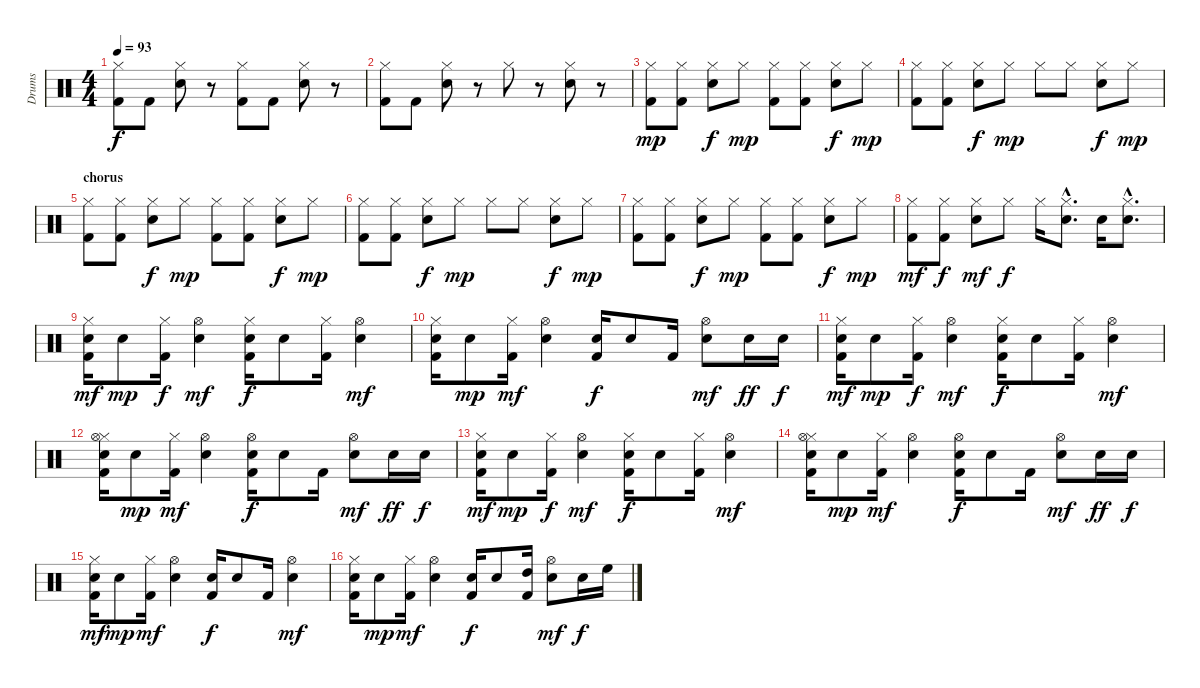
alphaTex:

\track ("Drums" "Drums") {instrument percussion}
\staff {score}
\articulation defaults
\ts (4 4)
\tempo 93
\clef neutral
\ks c
("Kick (hit) 2" "Hi-Hat (closed)").8{dy f} "Kick (hit) 2".8 ("Snare (hit) 2" "Hi-Hat (closed)").8 r.8 ("Kick (hit) 2" "Hi-Hat (closed)").8 "Kick (hit) 2".8 ("Snare (hit) 2" "Hi-Hat (closed)").8 r.8 |
("Kick (hit) 2" "Hi-Hat (closed)").8 "Kick (hit) 2".8 ("Snare (hit) 2" "Hi-Hat (closed)").8 r.8 "Hi-Hat (closed)".8 r.8 ("Snare (hit) 2" "Hi-Hat (closed)").8 r.8 |
("Kick (hit) 2" "Hi-Hat (closed)").8{dy mp} ("Kick (hit) 2" "Hi-Hat (closed)").8 ("Snare (hit) 2" "Hi-Hat (closed)").8{dy f} "Hi-Hat (closed)".8{dy mp} ("Kick (hit) 2" "Hi-Hat (closed)").8 ("Kick (hit) 2" "Hi-Hat (closed)").8 ("Snare (hit) 2" "Hi-Hat (closed)").8{dy f} "Hi-Hat (closed)".8{dy mp} |
("Kick (hit) 2" "Hi-Hat (closed)").8 ("Kick (hit) 2" "Hi-Hat (closed)").8 ("Snare (hit) 2" "Hi-Hat (closed)").8{dy f} "Hi-Hat (closed)".8{dy mp} "Hi-Hat (closed)".8 "Hi-Hat (closed)".8 ("Snare (hit) 2" "Hi-Hat (closed)").8{dy f} "Hi-Hat (closed)".8{dy mp} |
\section ("" "chorus")
("Kick (hit) 2" "Hi-Hat (closed)").8 ("Kick (hit) 2" "Hi-Hat (closed)").8 ("Snare (hit) 2" "Hi-Hat (closed)").8{dy f} "Hi-Hat (closed)".8{dy mp} ("Kick (hit) 2" "Hi-Hat (closed)").8 ("Kick (hit) 2" "Hi-Hat (closed)").8 ("Snare (hit) 2" "Hi-Hat (closed)").8{dy f} "Hi-Hat (closed)".8{dy mp} |
("Kick (hit) 2" "Hi-Hat (closed)").8 ("Kick (hit) 2" "Hi-Hat (closed)").8 ("Snare (hit) 2" "Hi-Hat (closed)").8{dy f} "Hi-Hat (closed)".8{dy mp} "Hi-Hat (closed)".8 "Hi-Hat (closed)".8 ("Snare (hit) 2" "Hi-Hat (closed)").8{dy f} "Hi-Hat (closed)".8{dy mp} |
("Kick (hit) 2" "Hi-Hat (closed)").8 ("Kick (hit) 2" "Hi-Hat (closed)").8 ("Snare (hit) 2" "Hi-Hat (closed)").8{dy f} "Hi-Hat (closed)".8{dy mp} ("Kick (hit) 2" "Hi-Hat (closed)").8 ("Kick (hit) 2" "Hi-Hat (closed)").8 ("Snare (hit) 2" "Hi-Hat (closed)").8{dy f} "Hi-Hat (closed)".8{dy mp} |
("Kick (hit) 2" "Hi-Hat (closed)").8{dy mf} ("Kick (hit) 2" "Hi-Hat (closed)").8{dy f} ("Snare (hit) 2" "Hi-Hat (closed)").8{dy mf} "Hi-Hat (closed)".8{dy f} "Hi-Hat (closed)".16 ("Snare (hit) 2"{hac} "Hi-Hat (closed)"{hac}).8{d} "Snare (hit) 2".16 ("Snare (hit) 2"{hac} "Hi-Hat (closed)"{hac}).8{d} |
("Kick (hit) 2" "Snare (hit) 2" "Hi-Hat (closed)").16{dy mf} "Snare (hit) 2".8{dy mp} ("Kick (hit) 2" "Hi-Hat (closed)").16{dy f} ("Snare (hit) 2" "Hi-Hat (open)").4{dy mf} ("Kick (hit) 2" "Snare (hit) 2" "Hi-Hat (closed)").16{dy f} "Snare (hit) 2".8 ("Kick (hit) 2" "Hi-Hat (closed)").16 ("Snare (hit) 2" "Hi-Hat (open)").4{dy mf} |
("Kick (hit) 2" "Snare (hit) 2" "Hi-Hat (closed)").16 "Snare (hit) 2".8{dy mp} ("Kick (hit) 2" "Hi-Hat (closed)").16{dy mf} ("Snare (hit) 2" "Hi-Hat (open)").4 ("Kick (hit) 2" "Snare (hit) 2").16{dy f} "Snare (hit) 2".8 "Kick (hit) 2".16 ("Snare (hit) 2" "Hi-Hat (open)").8{dy mf} "Snare (hit) 2".16{dy ff} "Snare (hit) 2".16{dy f} |
("Kick (hit) 2" "Snare (hit) 2" "Hi-Hat (closed)").16{dy mf} "Snare (hit) 2".8{dy mp} ("Kick (hit) 2" "Hi-Hat (closed)").16{dy f} ("Snare (hit) 2" "Hi-Hat (open)").4{dy mf} ("Kick (hit) 2" "Snare (hit) 2" "Hi-Hat (closed)").16{dy f} "Snare (hit) 2".8 ("Kick (hit) 2" "Hi-Hat (closed)").16 ("Snare (hit) 2" "Hi-Hat (open)").4{dy mf} |
("Kick (hit) 2" "Snare (hit) 2" "Hi-Hat (closed)" "Hi-Hat (open)").16 "Snare (hit) 2".8{dy mp} ("Kick (hit) 2" "Hi-Hat (closed)").16{dy mf} ("Snare (hit) 2" "Hi-Hat (open)").4 ("Kick (hit) 2" "Snare (hit) 2" "Hi-Hat (open)").16{dy f} "Snare (hit) 2".8 "Kick (hit) 2".16 ("Snare (hit) 2" "Hi-Hat (open)").8{dy mf} "Snare (hit) 2".16{dy ff} "Snare (hit) 2".16{dy f} |
("Kick (hit) 2" "Snare (hit) 2" "Hi-Hat (closed)").16{dy mf} "Snare (hit) 2".8{dy mp} ("Kick (hit) 2" "Hi-Hat (closed)").16{dy f} ("Snare (hit) 2" "Hi-Hat (open)").4{dy mf} ("Kick (hit) 2" "Snare (hit) 2" "Hi-Hat (closed)").16{dy f} "Snare (hit) 2".8 ("Kick (hit) 2" "Hi-Hat (closed)").16 ("Snare (hit) 2" "Hi-Hat (open)").4{dy mf} |
("Kick (hit) 2" "Snare (hit) 2" "Hi-Hat (closed)" "Hi-Hat (open)").16 "Snare (hit) 2".8{dy mp} ("Kick (hit) 2" "Hi-Hat (closed)").16{dy mf} ("Snare (hit) 2" "Hi-Hat (open)").4 ("Kick (hit) 2" "Snare (hit) 2" "Hi-Hat (open)").16{dy f} "Snare (hit) 2".8 "Kick (hit) 2".16 ("Snare (hit) 2" "Hi-Hat (open)").8{dy mf} "Snare (hit) 2".16{dy ff} "Snare (hit) 2".16{dy f} |
("Kick (hit) 2" "Snare (hit) 2" "Hi-Hat (closed)").16{dy mf} "Snare (hit) 2".8{dy mp} ("Kick (hit) 2" "Hi-Hat (closed)").16{dy mf} ("Snare (hit) 2" "Hi-Hat (open)").4 ("Kick (hit) 2" "Snare (hit) 2").16{dy f} "Snare (hit) 2".8 "Kick (hit) 2".16 ("Snare (hit) 2" "Hi-Hat (open)").4{dy mf} |
("Kick (hit) 2" "Snare (hit) 2" "Hi-Hat (closed)").16 "Snare (hit) 2".8{dy mp} ("Kick (hit) 2" "Hi-Hat (closed)").16{dy mf} ("Snare (hit) 2" "Hi-Hat (open)").4 ("Kick (hit) 2" "Snare (hit) 2").16{dy f} "Snare (hit) 2".8 ("Kick (hit) 2" "High Tom (hit)").16 ("Snare (hit) 2" "Hi-Hat (open)").8{dy mf} "Snare (hit) 2".16{dy f} "High Floor Tom (hit)".16
